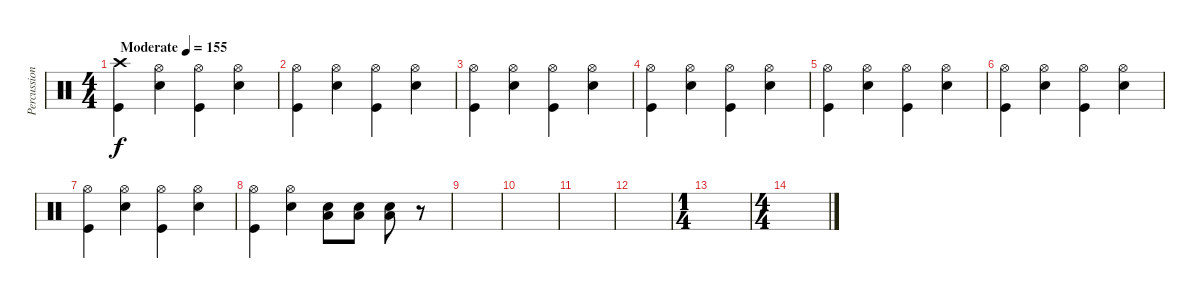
\track ("Percussion" "Percussion") {instrument percussion}
\staff {score}
\articulation defaults
\ts (4 4)
\tempo (155 "Moderate")
\clef neutral
\ks c
("Crash high (hit)" "Kick (hit)").4{dy f} ("Hi-Hat (open)" "Electric Snare (hit)").4 ("Hi-Hat (open)" "Kick (hit)").4 ("Hi-Hat (open)" "Electric Snare (hit)").4 |
("Hi-Hat (open)" "Kick (hit)").4 ("Hi-Hat (open)" "Electric Snare (hit)").4 ("Hi-Hat (open)" "Kick (hit)").4 ("Hi-Hat (open)" "Electric Snare (hit)").4 |
("Hi-Hat (open)" "Kick (hit)").4 ("Hi-Hat (open)" "Electric Snare (hit)").4 ("Hi-Hat (open)" "Kick (hit)").4 ("Hi-Hat (open)" "Electric Snare (hit)").4 |
("Hi-Hat (open)" "Kick (hit)").4 ("Hi-Hat (open)" "Electric Snare (hit)").4 ("Hi-Hat (open)" "Kick (hit)").4 ("Hi-Hat (open)" "Electric Snare (hit)").4 |
("Hi-Hat (open)" "Kick (hit)").4 ("Hi-Hat (open)" "Electric Snare (hit)").4 ("Hi-Hat (open)" "Kick (hit)").4 ("Hi-Hat (open)" "Electric Snare (hit)").4 |
("Hi-Hat (open)" "Kick (hit)").4 ("Hi-Hat (open)" "Electric Snare (hit)").4 ("Hi-Hat (open)" "Kick (hit)").4 ("Hi-Hat (open)" "Electric Snare (hit)").4 |
("Hi-Hat (open)" "Kick (hit)").4 ("Hi-Hat (open)" "Electric Snare (hit)").4 ("Hi-Hat (open)" "Kick (hit)").4 ("Hi-Hat (open)" "Electric Snare (hit)").4 |
("Hi-Hat (open)" "Kick (hit)").4 ("Hi-Hat (open)" "Electric Snare (hit)").4 ("Electric Snare (hit)" "Low Floor Tom (hit)").8 ("Electric Snare (hit)" "Low Floor Tom (hit)").8 ("Electric Snare (hit)" "Low Floor Tom (hit)").8 r.8 |
|
|
|
|
\ts (1 4)
|
\ts (4 4)
